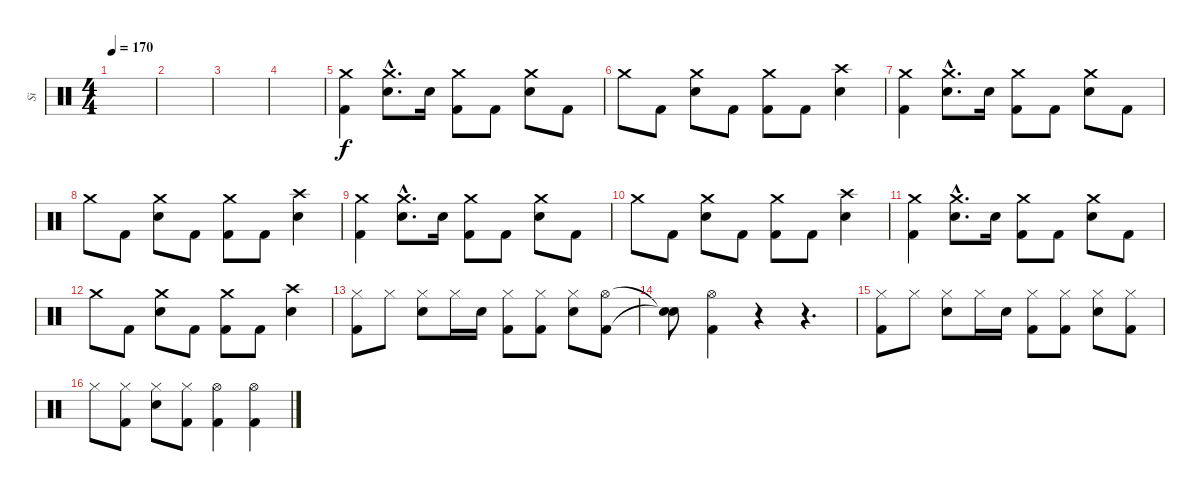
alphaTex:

\track ("Si" "Si") {instrument percussion}
\staff {score}
\articulation defaults
\ts (4 4)
\tempo 170
\clef neutral
\ks c
|
|
|
|
("Crash medium (hit)" "Kick (hit) 2").4 ("Crash medium (hit)"{hac} "Electric Snare (hit)"{hac}).8{d} "Electric Snare (hit)".16 ("Crash medium (hit)" "Kick (hit) 2").8 "Kick (hit) 2".8 ("Crash medium (hit)" "Electric Snare (hit)").8 "Kick (hit) 2".8 |
"Crash medium (hit)".8 "Kick (hit) 2".8 ("Crash medium (hit)" "Electric Snare (hit)").8 "Kick (hit) 2".8 ("Crash medium (hit)" "Kick (hit) 2").8 "Kick (hit) 2".8 ("Crash high (hit)" "Electric Snare (hit)").4 |
("Crash medium (hit)" "Kick (hit) 2").4 ("Crash medium (hit)"{hac} "Electric Snare (hit)"{hac}).8{d} "Electric Snare (hit)".16 ("Crash medium (hit)" "Kick (hit) 2").8 "Kick (hit) 2".8 ("Crash medium (hit)" "Electric Snare (hit)").8 "Kick (hit) 2".8 |
"Crash medium (hit)".8 "Kick (hit) 2".8 ("Crash medium (hit)" "Electric Snare (hit)").8 "Kick (hit) 2".8 ("Crash medium (hit)" "Kick (hit) 2").8 "Kick (hit) 2".8 ("Crash high (hit)" "Electric Snare (hit)").4 |
("Crash medium (hit)" "Kick (hit) 2").4 ("Crash medium (hit)"{hac} "Electric Snare (hit)"{hac}).8{d} "Electric Snare (hit)".16 ("Crash medium (hit)" "Kick (hit) 2").8 "Kick (hit) 2".8 ("Crash medium (hit)" "Electric Snare (hit)").8 "Kick (hit) 2".8 |
"Crash medium (hit)".8 "Kick (hit) 2".8 ("Crash medium (hit)" "Electric Snare (hit)").8 "Kick (hit) 2".8 ("Crash medium (hit)" "Kick (hit) 2").8 "Kick (hit) 2".8 ("Crash high (hit)" "Electric Snare (hit)").4 |
("Crash medium (hit)" "Kick (hit) 2").4 ("Crash medium (hit)"{hac} "Electric Snare (hit)"{hac}).8{d} "Electric Snare (hit)".16 ("Crash medium (hit)" "Kick (hit) 2").8 "Kick (hit) 2".8 ("Crash medium (hit)" "Electric Snare (hit)").8 "Kick (hit) 2".8 |
"Crash medium (hit)".8 "Kick (hit) 2".8 ("Crash medium (hit)" "Electric Snare (hit)").8 "Kick (hit) 2".8 ("Crash medium (hit)" "Kick (hit) 2").8 "Kick (hit) 2".8 ("Crash high (hit)" "Electric Snare (hit)").4 |
("Hi-Hat (closed)" "Kick (hit) 2").8 "Hi-Hat (closed)".8 ("Hi-Hat (closed)" "Electric Snare (hit)").8 "Hi-Hat (closed)".16 "Electric Snare (hit)".16 ("Hi-Hat (closed)" "Kick (hit) 2").8 ("Hi-Hat (closed)" "Kick (hit) 2").8 ("Hi-Hat (closed)" "Electric Snare (hit)").8 ("Hi-Hat (open)" "Kick (hit) 2").8 |
("Snare (hit)"{t} "Snare (hit)"{t}).8 ("Hi-Hat (open)" "Kick (hit) 2").4 r.4 r.4{d} |
("Hi-Hat (closed)" "Kick (hit) 2").8 "Hi-Hat (closed)".8 ("Hi-Hat (closed)" "Electric Snare (hit)").8 "Hi-Hat (closed)".16 "Electric Snare (hit)".16 ("Hi-Hat (closed)" "Kick (hit) 2").8 ("Hi-Hat (closed)" "Kick (hit) 2").8 ("Hi-Hat (closed)" "Electric Snare (hit)").8 ("Hi-Hat (closed)" "Kick (hit) 2").8 |
"Hi-Hat (closed)".8 ("Hi-Hat (closed)" "Kick (hit) 2").8 ("Hi-Hat (closed)" "Electric Snare (hit)").8 ("Hi-Hat (closed)" "Kick (hit) 2").8 ("Hi-Hat (open)" "Kick (hit) 2").4 ("Hi-Hat (open)" "Kick (hit) 2").4
